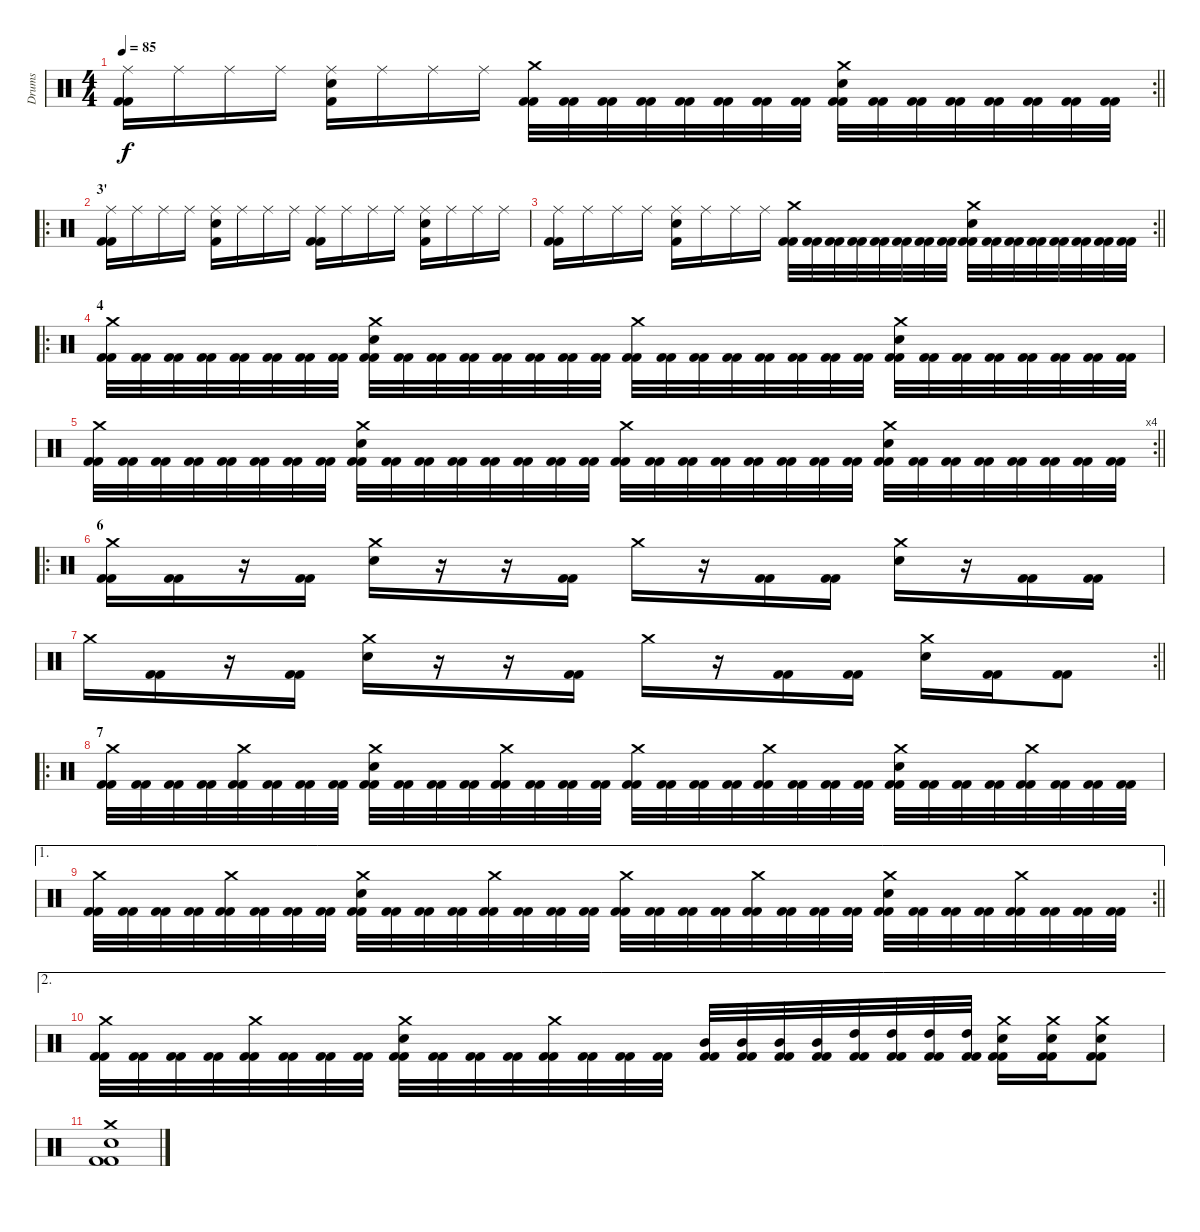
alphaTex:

\track ("Drums" "Drums") {instrument percussion}
\staff {score}
\articulation defaults
\rc 2
\ts (4 4)
\tempo 85
\clef neutral
\barLineRight lightlight
\ks c
("Kick (hit) 2" "Kick (hit) 2" "Ride (middle)").16{dy f} "Ride (middle)".16 "Ride (middle)".16 "Ride (middle)".16 ("Snare (hit) 2" "Kick (hit) 2" "Ride (middle)").16 "Ride (middle)".16 "Ride (middle)".16 "Ride (middle)".16 ("Crash medium (hit)" "Kick (hit) 2" "Kick (hit) 2").32 ("Kick (hit) 2" "Kick (hit) 2").32 ("Kick (hit) 2" "Kick (hit) 2").32 ("Kick (hit) 2" "Kick (hit) 2").32 ("Kick (hit) 2" "Kick (hit) 2").32 ("Kick (hit) 2" "Kick (hit) 2").32 ("Kick (hit) 2" "Kick (hit) 2").32 ("Kick (hit) 2" "Kick (hit) 2").32 ("Crash medium (hit)" "Snare (hit) 2" "Kick (hit) 2" "Kick (hit) 2").32 ("Kick (hit) 2" "Kick (hit) 2").32 ("Kick (hit) 2" "Kick (hit) 2").32 ("Kick (hit) 2" "Kick (hit) 2").32 ("Kick (hit) 2" "Kick (hit) 2").32 ("Kick (hit) 2" "Kick (hit) 2").32 ("Kick (hit) 2" "Kick (hit) 2").32 ("Kick (hit) 2" "Kick (hit) 2").32 |
\ro
\section ("" "3'")
("Kick (hit) 2" "Kick (hit) 2" "Ride (middle)").16 "Ride (middle)".16 "Ride (middle)".16 "Ride (middle)".16 ("Snare (hit) 2" "Kick (hit) 2" "Ride (middle)").16 "Ride (middle)".16 "Ride (middle)".16 "Ride (middle)".16 ("Kick (hit) 2" "Kick (hit) 2" "Ride (middle)").16 "Ride (middle)".16 "Ride (middle)".16 "Ride (middle)".16 ("Snare (hit) 2" "Kick (hit) 2" "Ride (middle)").16 "Ride (middle)".16 "Ride (middle)".16 "Ride (middle)".16 |
\rc 2
\barLineRight lightlight
("Kick (hit) 2" "Kick (hit) 2" "Ride (middle)").16 "Ride (middle)".16 "Ride (middle)".16 "Ride (middle)".16 ("Snare (hit) 2" "Kick (hit) 2" "Ride (middle)").16 "Ride (middle)".16 "Ride (middle)".16 "Ride (middle)".16 ("Crash medium (hit)" "Kick (hit) 2" "Kick (hit) 2").32 ("Kick (hit) 2" "Kick (hit) 2").32 ("Kick (hit) 2" "Kick (hit) 2").32 ("Kick (hit) 2" "Kick (hit) 2").32 ("Kick (hit) 2" "Kick (hit) 2").32 ("Kick (hit) 2" "Kick (hit) 2").32 ("Kick (hit) 2" "Kick (hit) 2").32 ("Kick (hit) 2" "Kick (hit) 2").32 ("Crash medium (hit)" "Snare (hit) 2" "Kick (hit) 2" "Kick (hit) 2").32 ("Kick (hit) 2" "Kick (hit) 2").32 ("Kick (hit) 2" "Kick (hit) 2").32 ("Kick (hit) 2" "Kick (hit) 2").32 ("Kick (hit) 2" "Kick (hit) 2").32 ("Kick (hit) 2" "Kick (hit) 2").32 ("Kick (hit) 2" "Kick (hit) 2").32 ("Kick (hit) 2" "Kick (hit) 2").32 |
\ro
\section ("" "4")
("Crash medium (hit)" "Kick (hit) 2" "Kick (hit) 2").32 ("Kick (hit) 2" "Kick (hit) 2").32 ("Kick (hit) 2" "Kick (hit) 2").32 ("Kick (hit) 2" "Kick (hit) 2").32 ("Kick (hit) 2" "Kick (hit) 2").32 ("Kick (hit) 2" "Kick (hit) 2").32 ("Kick (hit) 2" "Kick (hit) 2").32 ("Kick (hit) 2" "Kick (hit) 2").32 ("Crash medium (hit)" "Snare (hit) 2" "Kick (hit) 2" "Kick (hit) 2").32 ("Kick (hit) 2" "Kick (hit) 2").32 ("Kick (hit) 2" "Kick (hit) 2").32 ("Kick (hit) 2" "Kick (hit) 2").32 ("Kick (hit) 2" "Kick (hit) 2").32 ("Kick (hit) 2" "Kick (hit) 2").32 ("Kick (hit) 2" "Kick (hit) 2").32 ("Kick (hit) 2" "Kick (hit) 2").32 ("Crash medium (hit)" "Kick (hit) 2" "Kick (hit) 2").32 ("Kick (hit) 2" "Kick (hit) 2").32 ("Kick (hit) 2" "Kick (hit) 2").32 ("Kick (hit) 2" "Kick (hit) 2").32 ("Kick (hit) 2" "Kick (hit) 2").32 ("Kick (hit) 2" "Kick (hit) 2").32 ("Kick (hit) 2" "Kick (hit) 2").32 ("Kick (hit) 2" "Kick (hit) 2").32 ("Crash medium (hit)" "Snare (hit) 2" "Kick (hit) 2" "Kick (hit) 2").32 ("Kick (hit) 2" "Kick (hit) 2").32 ("Kick (hit) 2" "Kick (hit) 2").32 ("Kick (hit) 2" "Kick (hit) 2").32 ("Kick (hit) 2" "Kick (hit) 2").32 ("Kick (hit) 2" "Kick (hit) 2").32 ("Kick (hit) 2" "Kick (hit) 2").32 ("Kick (hit) 2" "Kick (hit) 2").32 |
\rc 4
\barLineRight lightlight
("Crash medium (hit)" "Kick (hit) 2" "Kick (hit) 2").32 ("Kick (hit) 2" "Kick (hit) 2").32 ("Kick (hit) 2" "Kick (hit) 2").32 ("Kick (hit) 2" "Kick (hit) 2").32 ("Kick (hit) 2" "Kick (hit) 2").32 ("Kick (hit) 2" "Kick (hit) 2").32 ("Kick (hit) 2" "Kick (hit) 2").32 ("Kick (hit) 2" "Kick (hit) 2").32 ("Crash medium (hit)" "Snare (hit) 2" "Kick (hit) 2" "Kick (hit) 2").32 ("Kick (hit) 2" "Kick (hit) 2").32 ("Kick (hit) 2" "Kick (hit) 2").32 ("Kick (hit) 2" "Kick (hit) 2").32 ("Kick (hit) 2" "Kick (hit) 2").32 ("Kick (hit) 2" "Kick (hit) 2").32 ("Kick (hit) 2" "Kick (hit) 2").32 ("Kick (hit) 2" "Kick (hit) 2").32 ("Crash medium (hit)" "Kick (hit) 2" "Kick (hit) 2").32 ("Kick (hit) 2" "Kick (hit) 2").32 ("Kick (hit) 2" "Kick (hit) 2").32 ("Kick (hit) 2" "Kick (hit) 2").32 ("Kick (hit) 2" "Kick (hit) 2").32 ("Kick (hit) 2" "Kick (hit) 2").32 ("Kick (hit) 2" "Kick (hit) 2").32 ("Kick (hit) 2" "Kick (hit) 2").32 ("Crash medium (hit)" "Snare (hit) 2" "Kick (hit) 2" "Kick (hit) 2").32 ("Kick (hit) 2" "Kick (hit) 2").32 ("Kick (hit) 2" "Kick (hit) 2").32 ("Kick (hit) 2" "Kick (hit) 2").32 ("Kick (hit) 2" "Kick (hit) 2").32 ("Kick (hit) 2" "Kick (hit) 2").32 ("Kick (hit) 2" "Kick (hit) 2").32 ("Kick (hit) 2" "Kick (hit) 2").32 |
\ro
\section ("" "6")
("Crash medium (hit)" "Kick (hit) 2" "Kick (hit) 2").16 ("Kick (hit) 2" "Kick (hit) 2").16 r.16 ("Kick (hit) 2" "Kick (hit) 2").16 ("Crash medium (hit)" "Snare (hit) 2").16 r.16 r.16 ("Kick (hit) 2" "Kick (hit) 2").16 "Crash medium (hit)".16 r.16 ("Kick (hit) 2" "Kick (hit) 2").16 ("Kick (hit) 2" "Kick (hit) 2").16 ("Crash medium (hit)" "Snare (hit) 2").16 r.16 ("Kick (hit) 2" "Kick (hit) 2").16 ("Kick (hit) 2" "Kick (hit) 2").16 |
\rc 2
\barLineRight lightlight "Crash medium (hit)".16
("Kick (hit) 2" "Kick (hit) 2").16 r.16 ("Kick (hit) 2" "Kick (hit) 2").16 ("Crash medium (hit)" "Snare (hit) 2").16 r.16 r.16 ("Kick (hit) 2" "Kick (hit) 2").16 "Crash medium (hit)".16 r.16 ("Kick (hit) 2" "Kick (hit) 2").16 ("Kick (hit) 2" "Kick (hit) 2").16 ("Crash medium (hit)" "Snare (hit) 2").16 ("Kick (hit) 2" "Kick (hit) 2").16 ("Kick (hit) 2" "Kick (hit) 2").8 |
\ro
\section ("" "7")
("Crash medium (hit)" "Kick (hit) 2" "Kick (hit) 2").32 ("Kick (hit) 2" "Kick (hit) 2").32 ("Kick (hit) 2" "Kick (hit) 2").32 ("Kick (hit) 2" "Kick (hit) 2").32 ("Crash medium (hit)" "Kick (hit) 2" "Kick (hit) 2").32 ("Kick (hit) 2" "Kick (hit) 2").32 ("Kick (hit) 2" "Kick (hit) 2").32 ("Kick (hit) 2" "Kick (hit) 2").32 ("Snare (hit) 2" "Crash medium (hit)" "Kick (hit) 2" "Kick (hit) 2").32 ("Kick (hit) 2" "Kick (hit) 2").32 ("Kick (hit) 2" "Kick (hit) 2").32 ("Kick (hit) 2" "Kick (hit) 2").32 ("Crash medium (hit)" "Kick (hit) 2" "Kick (hit) 2").32 ("Kick (hit) 2" "Kick (hit) 2").32 ("Kick (hit) 2" "Kick (hit) 2").32 ("Kick (hit) 2" "Kick (hit) 2").32 ("Crash medium (hit)" "Kick (hit) 2" "Kick (hit) 2").32 ("Kick (hit) 2" "Kick (hit) 2").32 ("Kick (hit) 2" "Kick (hit) 2").32 ("Kick (hit) 2" "Kick (hit) 2").32 ("Crash medium (hit)" "Kick (hit) 2" "Kick (hit) 2").32 ("Kick (hit) 2" "Kick (hit) 2").32 ("Kick (hit) 2" "Kick (hit) 2").32 ("Kick (hit) 2" "Kick (hit) 2").32 ("Snare (hit) 2" "Crash medium (hit)" "Kick (hit) 2" "Kick (hit) 2").32 ("Kick (hit) 2" "Kick (hit) 2").32 ("Kick (hit) 2" "Kick (hit) 2").32 ("Kick (hit) 2" "Kick (hit) 2").32 ("Crash medium (hit)" "Kick (hit) 2" "Kick (hit) 2").32 ("Kick (hit) 2" "Kick (hit) 2").32 ("Kick (hit) 2" "Kick (hit) 2").32 ("Kick (hit) 2" "Kick (hit) 2").32 |
\ae 1
\rc 2
\barLineRight lightlight
("Crash medium (hit)" "Kick (hit) 2" "Kick (hit) 2").32 ("Kick (hit) 2" "Kick (hit) 2").32 ("Kick (hit) 2" "Kick (hit) 2").32 ("Kick (hit) 2" "Kick (hit) 2").32 ("Crash medium (hit)" "Kick (hit) 2" "Kick (hit) 2").32 ("Kick (hit) 2" "Kick (hit) 2").32 ("Kick (hit) 2" "Kick (hit) 2").32 ("Kick (hit) 2" "Kick (hit) 2").32 ("Snare (hit) 2" "Crash medium (hit)" "Kick (hit) 2" "Kick (hit) 2").32 ("Kick (hit) 2" "Kick (hit) 2").32 ("Kick (hit) 2" "Kick (hit) 2").32 ("Kick (hit) 2" "Kick (hit) 2").32 ("Crash medium (hit)" "Kick (hit) 2" "Kick (hit) 2").32 ("Kick (hit) 2" "Kick (hit) 2").32 ("Kick (hit) 2" "Kick (hit) 2").32 ("Kick (hit) 2" "Kick (hit) 2").32 ("Crash medium (hit)" "Kick (hit) 2" "Kick (hit) 2").32 ("Kick (hit) 2" "Kick (hit) 2").32 ("Kick (hit) 2" "Kick (hit) 2").32 ("Kick (hit) 2" "Kick (hit) 2").32 ("Crash medium (hit)" "Kick (hit) 2" "Kick (hit) 2").32 ("Kick (hit) 2" "Kick (hit) 2").32 ("Kick (hit) 2" "Kick (hit) 2").32 ("Kick (hit) 2" "Kick (hit) 2").32 ("Snare (hit) 2" "Crash medium (hit)" "Kick (hit) 2" "Kick (hit) 2").32 ("Kick (hit) 2" "Kick (hit) 2").32 ("Kick (hit) 2" "Kick (hit) 2").32 ("Kick (hit) 2" "Kick (hit) 2").32 ("Crash medium (hit)" "Kick (hit) 2" "Kick (hit) 2").32 ("Kick (hit) 2" "Kick (hit) 2").32 ("Kick (hit) 2" "Kick (hit) 2").32 ("Kick (hit) 2" "Kick (hit) 2").32 |
\ae 2
("Crash medium (hit)" "Kick (hit) 2" "Kick (hit) 2").32 ("Kick (hit) 2" "Kick (hit) 2").32 ("Kick (hit) 2" "Kick (hit) 2").32 ("Kick (hit) 2" "Kick (hit) 2").32 ("Crash medium (hit)" "Kick (hit) 2" "Kick (hit) 2").32 ("Kick (hit) 2" "Kick (hit) 2").32 ("Kick (hit) 2" "Kick (hit) 2").32 ("Kick (hit) 2" "Kick (hit) 2").32 ("Snare (hit) 2" "Crash medium (hit)" "Kick (hit) 2" "Kick (hit) 2").32 ("Kick (hit) 2" "Kick (hit) 2").32 ("Kick (hit) 2" "Kick (hit) 2").32 ("Kick (hit) 2" "Kick (hit) 2").32 ("Crash medium (hit)" "Kick (hit) 2" "Kick (hit) 2").32 ("Kick (hit) 2" "Kick (hit) 2").32 ("Kick (hit) 2" "Kick (hit) 2").32 ("Kick (hit) 2" "Kick (hit) 2").32 ("Mid Tom (hit)" "Kick (hit) 2" "Kick (hit) 2").32 ("Mid Tom (hit)" "Kick (hit) 2" "Kick (hit) 2").32 ("Mid Tom (hit)" "Kick (hit) 2" "Kick (hit) 2").32 ("Mid Tom (hit)" "Kick (hit) 2" "Kick (hit) 2").32 ("High Tom (hit)" "Kick (hit) 2" "Kick (hit) 2").32 ("High Tom (hit)" "Kick (hit) 2" "Kick (hit) 2").32 ("High Tom (hit)" "Kick (hit) 2" "Kick (hit) 2").32 ("High Tom (hit)" "Kick (hit) 2" "Kick (hit) 2").32 ("Crash medium (hit)" "Snare (hit) 2" "Kick (hit) 2" "Kick (hit) 2").16 ("Crash medium (hit)" "Snare (hit) 2" "Kick (hit) 2" "Kick (hit) 2").16 ("Crash medium (hit)" "Snare (hit) 2" "Kick (hit) 2" "Kick (hit) 2").8 |
("Crash medium (hit)" "Snare (hit) 2" "Kick (hit) 2" "Kick (hit) 2").1
